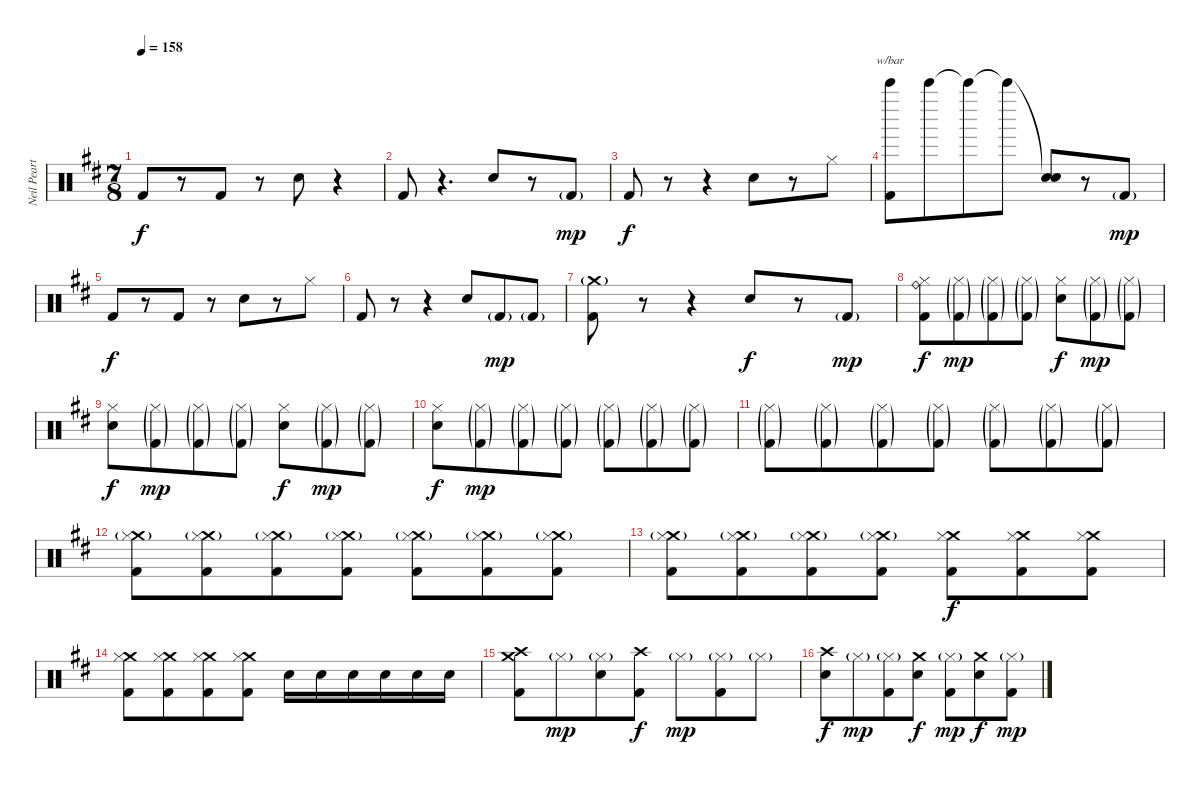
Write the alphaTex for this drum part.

\track ("Neil Peart (drums)" "Neil Peart") {instrument percussion}
\staff {score}
\articulation defaults
\ts (7 8)
\tempo 158
\clef neutral
\ks bminor "Kick (hit) 2".8{dy f}
r.8 "Kick (hit) 2".8 r.8 "Electric Snare (hit)".8 r.4 |
"Kick (hit) 2".8 r.4{d} "Electric Snare (hit)".8 r.8 "Kick (hit) 2"{g}.8{dy mp} |
"Kick (hit) 2".8{dy f} r.8 r.4 "Electric Snare (hit)".8 r.8 "Hi-Hat (closed)".8 |
("Bell Tree (hit)" "Kick (hit) 2").8{tbe (custom default 0 0 14 0 30 -4 60 -8)} "Bell Tree (hit)"{t}.8 "Bell Tree (hit)"{t}.8 "Bell Tree (hit)"{t}.8 ("Snare (hit)"{t} "Electric Snare (hit)").8 r.8 "Kick (hit) 2"{g}.8{dy mp} |
"Kick (hit) 2".8{dy f} r.8 "Kick (hit) 2".8 r.8 "Electric Snare (hit)".8 r.8 "Hi-Hat (closed)".8 |
"Kick (hit) 2".8 r.8 r.4 "Electric Snare (hit)".8 "Kick (hit) 2"{g}.8{dy mp} "Kick (hit) 2"{g}.8 |
("Crash medium (hit)"{g} "Kick (hit) 2").8 r.8 r.4 "Electric Snare (hit)".8{dy f} r.8{volume 8} "Kick (hit) 2"{g}.8{dy mp} |
("Ride (bell)" "Hi-Hat (closed)" "Kick (hit) 2").8{dy f volume 15} ("Hi-Hat (closed)"{g} "Kick (hit) 2"{g}).8{dy mp} ("Hi-Hat (closed)"{g} "Kick (hit) 2"{g}).8 ("Hi-Hat (closed)"{g} "Kick (hit) 2"{g}).8 ("Hi-Hat (closed)" "Electric Snare (hit)").8{dy f} ("Hi-Hat (closed)"{g} "Kick (hit) 2"{g}).8{dy mp} ("Hi-Hat (closed)"{g} "Kick (hit) 2"{g}).8 |
("Hi-Hat (closed)" "Electric Snare (hit)").8{dy f} ("Hi-Hat (closed)"{g} "Kick (hit) 2"{g}).8{dy mp} ("Hi-Hat (closed)"{g} "Kick (hit) 2"{g}).8 ("Hi-Hat (closed)"{g} "Kick (hit) 2"{g}).8 ("Hi-Hat (closed)" "Electric Snare (hit)").8{dy f} ("Hi-Hat (closed)"{g} "Kick (hit) 2"{g}).8{dy mp} ("Hi-Hat (closed)"{g} "Kick (hit) 2"{g}).8 |
("Hi-Hat (closed)" "Electric Snare (hit)").8{dy f} ("Hi-Hat (closed)"{g} "Kick (hit) 2"{g}).8{dy mp} ("Hi-Hat (closed)"{g} "Kick (hit) 2"{g}).8 ("Hi-Hat (closed)"{g} "Kick (hit) 2"{g}).8 ("Hi-Hat (closed)"{g} "Kick (hit) 2"{g}).8 ("Hi-Hat (closed)"{g} "Kick (hit) 2"{g}).8 ("Hi-Hat (closed)"{g} "Kick (hit) 2"{g}).8 |
("Hi-Hat (closed)"{g} "Kick (hit) 2"{g}).8 ("Hi-Hat (closed)"{g} "Kick (hit) 2"{g}).8 ("Hi-Hat (closed)"{g} "Kick (hit) 2"{g}).8 ("Hi-Hat (closed)"{g} "Kick (hit) 2"{g}).8 ("Hi-Hat (closed)"{g} "Kick (hit) 2"{g}).8 ("Hi-Hat (closed)"{g} "Kick (hit) 2"{g}).8 ("Hi-Hat (closed)"{g} "Kick (hit) 2"{g}).8 |
("Crash medium (hit)"{g} "Hi-Hat (closed)" "Kick (hit) 2").8 ("Crash medium (hit)"{g} "Hi-Hat (closed)" "Kick (hit) 2").8 ("Crash medium (hit)"{g} "Hi-Hat (closed)" "Kick (hit) 2").8 ("Crash medium (hit)"{g} "Hi-Hat (closed)" "Kick (hit) 2").8 ("Crash medium (hit)"{g} "Hi-Hat (closed)" "Kick (hit) 2").8 ("Crash medium (hit)"{g} "Hi-Hat (closed)" "Kick (hit) 2").8 ("Crash medium (hit)"{g} "Hi-Hat (closed)" "Kick (hit) 2").8 |
("Crash medium (hit)"{g} "Hi-Hat (closed)" "Kick (hit) 2").8 ("Crash medium (hit)"{g} "Hi-Hat (closed)" "Kick (hit) 2").8 ("Crash medium (hit)"{g} "Hi-Hat (closed)" "Kick (hit) 2").8 ("Crash medium (hit)"{g} "Hi-Hat (closed)" "Kick (hit) 2").8 ("Crash medium (hit)" "Hi-Hat (closed)" "Kick (hit) 2").8{dy f} ("Crash medium (hit)" "Hi-Hat (closed)" "Kick (hit) 2").8 ("Crash medium (hit)" "Hi-Hat (closed)" "Kick (hit) 2").8 |
("Crash medium (hit)" "Hi-Hat (closed)" "Kick (hit) 2").8 ("Crash medium (hit)" "Hi-Hat (closed)" "Kick (hit) 2").8 ("Crash medium (hit)" "Hi-Hat (closed)" "Kick (hit) 2").8 ("Crash medium (hit)" "Hi-Hat (closed)" "Kick (hit) 2").8 "Electric Snare (hit)".16 "Electric Snare (hit)".16 "Electric Snare (hit)".16 "Electric Snare (hit)".16 "Electric Snare (hit)".16 "Electric Snare (hit)".16 |
("Crash high (hit)" "Crash medium (hit)" "Kick (hit) 2").8 "Hi-Hat (closed)"{g}.8{dy mp} ("Hi-Hat (closed)"{g} "Electric Snare (hit)").8 ("Crash high (hit)" "Kick (hit) 2").8{dy f} "Hi-Hat (closed)"{g}.8{dy mp} ("Hi-Hat (closed)"{g} "Kick (hit) 2").8 "Hi-Hat (closed)"{g}.8 |
("Crash high (hit)" "Electric Snare (hit)").8{dy f} "Hi-Hat (closed)"{g}.8{dy mp} ("Hi-Hat (closed)"{g} "Kick (hit) 2").8 ("Crash medium (hit)" "Electric Snare (hit)").8{dy f} ("Hi-Hat (closed)"{g} "Kick (hit) 2").8{dy mp} ("Crash medium (hit)" "Electric Snare (hit)").8{dy f} ("Hi-Hat (closed)"{g} "Kick (hit) 2").8{dy mp}
